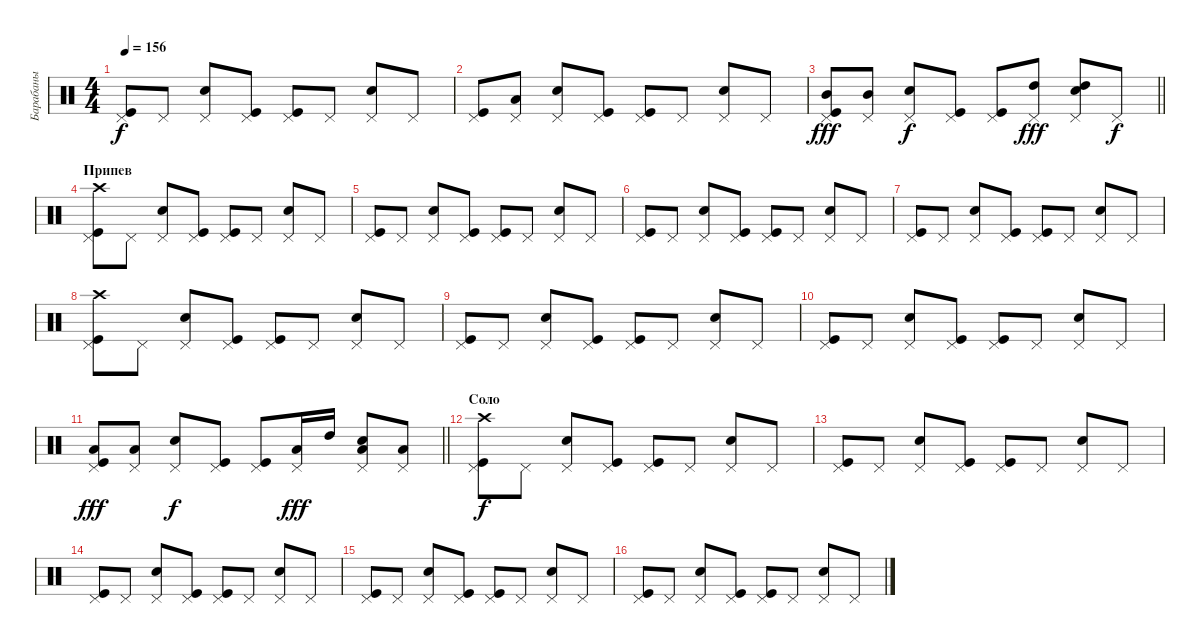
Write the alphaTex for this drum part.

\track ("Барабаны" "Барабаны") {instrument percussion}
\staff {score}
\articulation defaults
\ts (4 4)
\tempo 156
\clef neutral
\ks c
("Kick (hit)" "Pedal Hi-Hat (hit)").8{dy f} "Pedal Hi-Hat (hit)".8 ("Snare (hit) 2" "Pedal Hi-Hat (hit)").8 ("Kick (hit)" "Pedal Hi-Hat (hit)").8 ("Kick (hit)" "Pedal Hi-Hat (hit)").8 "Pedal Hi-Hat (hit)".8 ("Snare (hit) 2" "Pedal Hi-Hat (hit)").8 "Pedal Hi-Hat (hit)".8 |
("Kick (hit)" "Pedal Hi-Hat (hit)").8 ("Pedal Hi-Hat (hit)" "Low Tom (hit)").8 ("Snare (hit) 2" "Pedal Hi-Hat (hit)").8 ("Kick (hit)" "Pedal Hi-Hat (hit)").8 ("Kick (hit)" "Pedal Hi-Hat (hit)").8 "Pedal Hi-Hat (hit)".8 ("Snare (hit) 2" "Pedal Hi-Hat (hit)").8 "Pedal Hi-Hat (hit)".8 |
\barLineRight lightlight
("Kick (hit)" "Pedal Hi-Hat (hit)" "Mid Tom (hit)").8{dy fff} ("Pedal Hi-Hat (hit)" "Mid Tom (hit)").8 ("Snare (hit) 2" "Pedal Hi-Hat (hit)").8{dy f} ("Kick (hit)" "Pedal Hi-Hat (hit)").8 ("Kick (hit)" "Pedal Hi-Hat (hit)").8 ("Pedal Hi-Hat (hit)" "High Tom (hit)").8{dy fff} ("Snare (hit) 2" "Pedal Hi-Hat (hit)" "High Tom (hit)").8 "Pedal Hi-Hat (hit)".8{dy f} |
\section ("" "Припев")
("Kick (hit)" "Pedal Hi-Hat (hit)" "Crash high (hit)").8 "Pedal Hi-Hat (hit)".8 ("Snare (hit) 2" "Pedal Hi-Hat (hit)").8 ("Kick (hit)" "Pedal Hi-Hat (hit)").8 ("Kick (hit)" "Pedal Hi-Hat (hit)").8 "Pedal Hi-Hat (hit)".8 ("Snare (hit) 2" "Pedal Hi-Hat (hit)").8 "Pedal Hi-Hat (hit)".8 |
("Kick (hit)" "Pedal Hi-Hat (hit)").8 "Pedal Hi-Hat (hit)".8 ("Snare (hit) 2" "Pedal Hi-Hat (hit)").8 ("Kick (hit)" "Pedal Hi-Hat (hit)").8 ("Kick (hit)" "Pedal Hi-Hat (hit)").8 "Pedal Hi-Hat (hit)".8 ("Snare (hit) 2" "Pedal Hi-Hat (hit)").8 "Pedal Hi-Hat (hit)".8 |
("Kick (hit)" "Pedal Hi-Hat (hit)").8 "Pedal Hi-Hat (hit)".8 ("Snare (hit) 2" "Pedal Hi-Hat (hit)").8 ("Kick (hit)" "Pedal Hi-Hat (hit)").8 ("Kick (hit)" "Pedal Hi-Hat (hit)").8 "Pedal Hi-Hat (hit)".8 ("Snare (hit) 2" "Pedal Hi-Hat (hit)").8 "Pedal Hi-Hat (hit)".8 |
("Kick (hit)" "Pedal Hi-Hat (hit)").8 "Pedal Hi-Hat (hit)".8 ("Snare (hit) 2" "Pedal Hi-Hat (hit)").8 ("Kick (hit)" "Pedal Hi-Hat (hit)").8 ("Kick (hit)" "Pedal Hi-Hat (hit)").8 "Pedal Hi-Hat (hit)".8 ("Snare (hit) 2" "Pedal Hi-Hat (hit)").8 "Pedal Hi-Hat (hit)".8 |
("Kick (hit)" "Pedal Hi-Hat (hit)" "Crash high (hit)").8 "Pedal Hi-Hat (hit)".8 ("Snare (hit) 2" "Pedal Hi-Hat (hit)").8 ("Kick (hit)" "Pedal Hi-Hat (hit)").8 ("Kick (hit)" "Pedal Hi-Hat (hit)").8 "Pedal Hi-Hat (hit)".8 ("Snare (hit) 2" "Pedal Hi-Hat (hit)").8 "Pedal Hi-Hat (hit)".8 |
("Kick (hit)" "Pedal Hi-Hat (hit)").8 "Pedal Hi-Hat (hit)".8 ("Snare (hit) 2" "Pedal Hi-Hat (hit)").8 ("Kick (hit)" "Pedal Hi-Hat (hit)").8 ("Kick (hit)" "Pedal Hi-Hat (hit)").8 "Pedal Hi-Hat (hit)".8 ("Snare (hit) 2" "Pedal Hi-Hat (hit)").8 "Pedal Hi-Hat (hit)".8 |
("Kick (hit)" "Pedal Hi-Hat (hit)").8 "Pedal Hi-Hat (hit)".8 ("Snare (hit) 2" "Pedal Hi-Hat (hit)").8 ("Kick (hit)" "Pedal Hi-Hat (hit)").8 ("Kick (hit)" "Pedal Hi-Hat (hit)").8 "Pedal Hi-Hat (hit)".8 ("Snare (hit) 2" "Pedal Hi-Hat (hit)").8 "Pedal Hi-Hat (hit)".8 |
\barLineRight lightlight
("Kick (hit)" "Pedal Hi-Hat (hit)" "Low Tom (hit)").8{dy fff} ("Pedal Hi-Hat (hit)" "Low Tom (hit)").8 ("Snare (hit) 2" "Pedal Hi-Hat (hit)").8{dy f} ("Kick (hit)" "Pedal Hi-Hat (hit)").8 ("Kick (hit)" "Pedal Hi-Hat (hit)").8 ("Pedal Hi-Hat (hit)" "Low Tom (hit)").16{dy fff} "High Tom (hit)".16 ("Snare (hit) 2" "Pedal Hi-Hat (hit)" "Low Tom (hit)").8 ("Pedal Hi-Hat (hit)" "Low Tom (hit)").8 |
\section ("" "Соло")
("Kick (hit)" "Pedal Hi-Hat (hit)" "Crash high (hit)").8{dy f} "Pedal Hi-Hat (hit)".8 ("Snare (hit) 2" "Pedal Hi-Hat (hit)").8 ("Kick (hit)" "Pedal Hi-Hat (hit)").8 ("Kick (hit)" "Pedal Hi-Hat (hit)").8 "Pedal Hi-Hat (hit)".8 ("Snare (hit) 2" "Pedal Hi-Hat (hit)").8 "Pedal Hi-Hat (hit)".8 |
("Kick (hit)" "Pedal Hi-Hat (hit)").8 "Pedal Hi-Hat (hit)".8 ("Snare (hit) 2" "Pedal Hi-Hat (hit)").8 ("Kick (hit)" "Pedal Hi-Hat (hit)").8 ("Kick (hit)" "Pedal Hi-Hat (hit)").8 "Pedal Hi-Hat (hit)".8 ("Snare (hit) 2" "Pedal Hi-Hat (hit)").8 "Pedal Hi-Hat (hit)".8 |
("Kick (hit)" "Pedal Hi-Hat (hit)").8 "Pedal Hi-Hat (hit)".8 ("Snare (hit) 2" "Pedal Hi-Hat (hit)").8 ("Kick (hit)" "Pedal Hi-Hat (hit)").8 ("Kick (hit)" "Pedal Hi-Hat (hit)").8 "Pedal Hi-Hat (hit)".8 ("Snare (hit) 2" "Pedal Hi-Hat (hit)").8 "Pedal Hi-Hat (hit)".8 |
("Kick (hit)" "Pedal Hi-Hat (hit)").8 "Pedal Hi-Hat (hit)".8 ("Snare (hit) 2" "Pedal Hi-Hat (hit)").8 ("Kick (hit)" "Pedal Hi-Hat (hit)").8 ("Kick (hit)" "Pedal Hi-Hat (hit)").8 "Pedal Hi-Hat (hit)".8 ("Snare (hit) 2" "Pedal Hi-Hat (hit)").8 "Pedal Hi-Hat (hit)".8 |
("Kick (hit)" "Pedal Hi-Hat (hit)").8 "Pedal Hi-Hat (hit)".8 ("Snare (hit) 2" "Pedal Hi-Hat (hit)").8 ("Kick (hit)" "Pedal Hi-Hat (hit)").8 ("Kick (hit)" "Pedal Hi-Hat (hit)").8 "Pedal Hi-Hat (hit)".8 ("Snare (hit) 2" "Pedal Hi-Hat (hit)").8 "Pedal Hi-Hat (hit)".8
